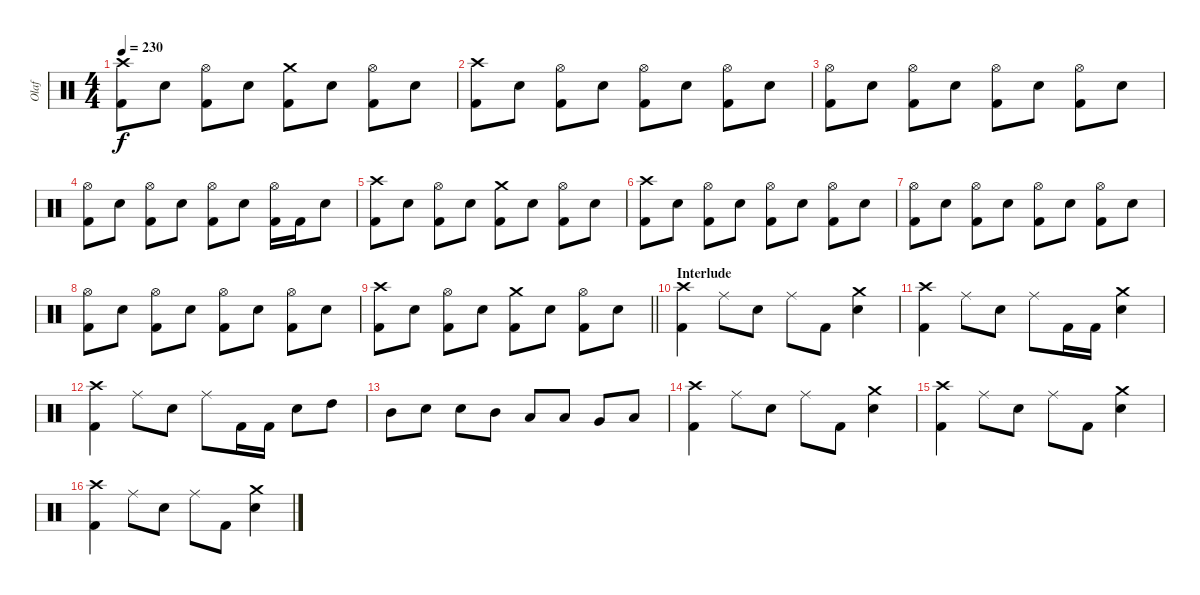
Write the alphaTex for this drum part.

\track ("Olaf" "Olaf") {instrument percussion}
\staff {score}
\articulation defaults
\ts (4 4)
\tempo 230
\clef neutral
\ks c
("Crash high (hit)" "Kick (hit) 2").8{dy f} "Electric Snare (hit)".8 ("Hi-Hat (open)" "Kick (hit) 2").8 "Electric Snare (hit)".8 ("Crash medium (hit)" "Kick (hit) 2").8 "Electric Snare (hit)".8 ("Hi-Hat (open)" "Kick (hit) 2").8 "Electric Snare (hit)".8 |
("Crash high (hit)" "Kick (hit) 2").8 "Electric Snare (hit)".8 ("Hi-Hat (open)" "Kick (hit) 2").8 "Electric Snare (hit)".8 ("Hi-Hat (open)" "Kick (hit) 2").8 "Electric Snare (hit)".8 ("Hi-Hat (open)" "Kick (hit) 2").8 "Electric Snare (hit)".8 |
("Hi-Hat (open)" "Kick (hit) 2").8 "Electric Snare (hit)".8 ("Hi-Hat (open)" "Kick (hit) 2").8 "Electric Snare (hit)".8 ("Hi-Hat (open)" "Kick (hit) 2").8 "Electric Snare (hit)".8 ("Hi-Hat (open)" "Kick (hit) 2").8 "Electric Snare (hit)".8 |
("Hi-Hat (open)" "Kick (hit) 2").8 "Electric Snare (hit)".8 ("Hi-Hat (open)" "Kick (hit) 2").8 "Electric Snare (hit)".8 ("Hi-Hat (open)" "Kick (hit) 2").8 "Electric Snare (hit)".8 ("Hi-Hat (open)" "Kick (hit) 2").16 "Kick (hit) 2".16 "Electric Snare (hit)".8 |
("Crash high (hit)" "Kick (hit) 2").8 "Electric Snare (hit)".8 ("Hi-Hat (open)" "Kick (hit) 2").8 "Electric Snare (hit)".8 ("Crash medium (hit)" "Kick (hit) 2").8 "Electric Snare (hit)".8 ("Hi-Hat (open)" "Kick (hit) 2").8 "Electric Snare (hit)".8 |
("Crash high (hit)" "Kick (hit) 2").8 "Electric Snare (hit)".8 ("Hi-Hat (open)" "Kick (hit) 2").8 "Electric Snare (hit)".8 ("Hi-Hat (open)" "Kick (hit) 2").8 "Electric Snare (hit)".8 ("Hi-Hat (open)" "Kick (hit) 2").8 "Electric Snare (hit)".8 |
("Hi-Hat (open)" "Kick (hit) 2").8 "Electric Snare (hit)".8 ("Hi-Hat (open)" "Kick (hit) 2").8 "Electric Snare (hit)".8 ("Hi-Hat (open)" "Kick (hit) 2").8 "Electric Snare (hit)".8 ("Hi-Hat (open)" "Kick (hit) 2").8 "Electric Snare (hit)".8 |
("Hi-Hat (open)" "Kick (hit) 2").8 "Electric Snare (hit)".8 ("Hi-Hat (open)" "Kick (hit) 2").8 "Electric Snare (hit)".8 ("Hi-Hat (open)" "Kick (hit) 2").8 "Electric Snare (hit)".8 ("Hi-Hat (open)" "Kick (hit) 2").8 "Electric Snare (hit)".8 |
\barLineRight lightlight
("Crash high (hit)" "Kick (hit) 2").8 "Electric Snare (hit)".8 ("Hi-Hat (open)" "Kick (hit) 2").8 "Electric Snare (hit)".8 ("Crash medium (hit)" "Kick (hit) 2").8 "Electric Snare (hit)".8 ("Hi-Hat (open)" "Kick (hit) 2").8 "Electric Snare (hit)".8 |
\section ("" "Interlude")
("Crash high (hit)" "Kick (hit) 2").4 "Ride (middle)".8 "Electric Snare (hit)".8 "Ride (middle)".8 "Kick (hit) 2".8 ("Crash medium (hit)" "Electric Snare (hit)").4 |
("Crash high (hit)" "Kick (hit) 2").4 "Ride (middle)".8 "Electric Snare (hit)".8 "Ride (middle)".8 "Kick (hit) 2".16 "Kick (hit) 2".16 ("Crash medium (hit)" "Electric Snare (hit)").4 |
("Crash high (hit)" "Kick (hit) 2").4 "Ride (middle)".8 "Electric Snare (hit)".8 "Ride (middle)".8 "Kick (hit) 2".16 "Kick (hit) 2".16 "Electric Snare (hit)".8 "High Tom (hit)".8 |
"Mid Tom (hit)".8 "Electric Snare (hit)".8 "Electric Snare (hit)".8 "Mid Tom (hit)".8 "Low Tom (hit)".8 "Low Tom (hit)".8 "Very Low Tom (hit)".8 "Low Floor Tom (hit)".8 |
("Crash high (hit)" "Kick (hit) 2").4 "Ride (middle)".8 "Electric Snare (hit)".8 "Ride (middle)".8 "Kick (hit) 2".8 ("Crash medium (hit)" "Electric Snare (hit)").4 |
("Crash high (hit)" "Kick (hit) 2").4 "Ride (middle)".8 "Electric Snare (hit)".8 "Ride (middle)".8 "Kick (hit) 2".8 ("Crash medium (hit)" "Electric Snare (hit)").4 |
("Crash high (hit)" "Kick (hit) 2").4 "Ride (middle)".8 "Electric Snare (hit)".8 "Ride (middle)".8 "Kick (hit) 2".8 ("Crash medium (hit)" "Electric Snare (hit)").4
